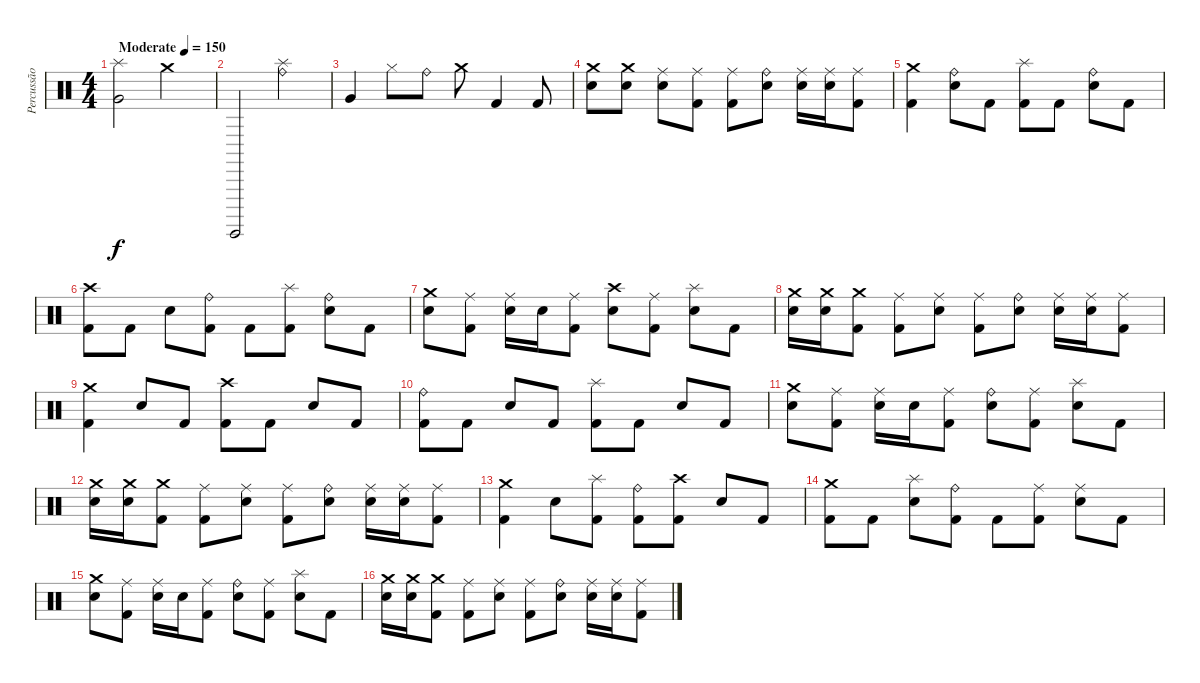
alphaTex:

\track ("Percussão" "Percussão") {instrument percussion}
\staff {score}
\articulation defaults
\ts (4 4)
\tempo (150 "Moderate")
\clef neutral
\ks c
("Very Low Tom (hit)" "Splash (hit)").2{dy f} "Crash medium (hit)".2 |
"Surdo (hit)".2 ("Ride (bell)" "Splash (hit)").2 |
"Very Low Tom (hit)".4 "Hi-Hat (closed)".8 "Ride (bell)".8 "Crash medium (hit)".8 "Kick (hit) 2".4 "Kick (hit) 2".8 |
("Snare (hit) 2" "Crash medium (hit)").8 ("Snare (hit) 2" "Crash medium (hit)").8 ("Snare (hit) 2" "Ride (middle)").8 ("Kick (hit) 2" "Ride (middle)").8 ("Kick (hit) 2" "Ride (middle)").8 ("Snare (hit) 2" "Ride (bell)").8 ("Snare (hit) 2" "Ride (middle)").16 ("Snare (hit) 2" "Ride (middle)").16 ("Kick (hit) 2" "Ride (middle)").8 |
("Kick (hit) 2" "Crash medium (hit)").4 ("Snare (hit) 2" "Ride (bell)").8 "Kick (hit) 2".8 ("Kick (hit) 2" "Splash (hit)").8 "Kick (hit) 2".8 ("Snare (hit) 2" "Ride (bell)").8 "Kick (hit) 2".8 |
("Kick (hit) 2" "Crash high (hit)").8 "Kick (hit) 2".8 "Snare (hit) 2".8 ("Kick (hit) 2" "Ride (bell)").8 "Kick (hit) 2".8 ("Kick (hit) 2" "Splash (hit)").8 ("Snare (hit) 2" "Ride (bell)").8 "Kick (hit) 2".8 |
("Snare (hit) 2" "Crash medium (hit)").8 ("Kick (hit) 2" "Ride (middle)").8 ("Snare (hit) 2" "Ride (middle)").16 "Snare (hit) 2".16 ("Kick (hit) 2" "Ride (middle)").8 ("Snare (hit) 2" "Crash high (hit)").8 ("Kick (hit) 2" "Ride (middle)").8 ("Snare (hit) 2" "Splash (hit)").8 "Kick (hit) 2".8 |
("Snare (hit) 2" "Crash medium (hit)").16 ("Snare (hit) 2" "Crash medium (hit)").16 ("Kick (hit) 2" "Crash medium (hit)").8 ("Kick (hit) 2" "Ride (middle)").8 ("Snare (hit) 2" "Ride (middle)").8 ("Kick (hit) 2" "Ride (middle)").8 ("Snare (hit) 2" "Ride (bell)").8 ("Snare (hit) 2" "Ride (middle)").16 ("Snare (hit) 2" "Ride (middle)").16 ("Kick (hit) 2" "Ride (middle)").8 |
("Kick (hit) 2" "Crash medium (hit)").4 "Snare (hit) 2".8 "Kick (hit) 2".8 ("Kick (hit) 2" "Crash high (hit)").8 "Kick (hit) 2".8 "Snare (hit) 2".8 "Kick (hit) 2".8 |
("Kick (hit) 2" "Ride (bell)").8 "Kick (hit) 2".8 "Snare (hit) 2".8 "Kick (hit) 2".8 ("Kick (hit) 2" "Splash (hit)").8 "Kick (hit) 2".8 "Snare (hit) 2".8 "Kick (hit) 2".8 |
("Snare (hit) 2" "Crash medium (hit)").8 ("Kick (hit) 2" "Ride (middle)").8 ("Snare (hit) 2" "Ride (middle)").16 "Snare (hit) 2".16 ("Kick (hit) 2" "Ride (middle)").8 ("Snare (hit) 2" "Ride (bell)").8 ("Kick (hit) 2" "Ride (middle)").8 ("Snare (hit) 2" "Splash (hit)").8 "Kick (hit) 2".8 |
("Snare (hit) 2" "Crash medium (hit)").16 ("Snare (hit) 2" "Crash medium (hit)").16 ("Kick (hit) 2" "Crash medium (hit)").8 ("Kick (hit) 2" "Ride (middle)").8 ("Snare (hit) 2" "Ride (middle)").8 ("Kick (hit) 2" "Ride (middle)").8 ("Snare (hit) 2" "Ride (bell)").8 ("Snare (hit) 2" "Ride (middle)").16 ("Snare (hit) 2" "Ride (middle)").16 ("Kick (hit) 2" "Ride (middle)").8 |
("Kick (hit) 2" "Crash medium (hit)").4 "Snare (hit) 2".8 ("Kick (hit) 2" "Splash (hit)").8 ("Kick (hit) 2" "Ride (bell)").8 ("Kick (hit) 2" "Crash high (hit)").8 "Snare (hit) 2".8 "Kick (hit) 2".8 |
("Kick (hit) 2" "Crash medium (hit)").8 "Kick (hit) 2".8 ("Snare (hit) 2" "Splash (hit)").8 ("Kick (hit) 2" "Ride (bell)").8 "Kick (hit) 2".8 ("Kick (hit) 2" "Ride (middle)").8 ("Snare (hit) 2" "Ride (middle)").8 "Kick (hit) 2".8 |
("Snare (hit) 2" "Crash medium (hit)").8 ("Kick (hit) 2" "Ride (middle)").8 ("Snare (hit) 2" "Ride (middle)").16 "Snare (hit) 2".16 ("Kick (hit) 2" "Ride (middle)").8 ("Snare (hit) 2" "Ride (bell)").8 ("Kick (hit) 2" "Ride (middle)").8 ("Snare (hit) 2" "Splash (hit)").8 "Kick (hit) 2".8 |
("Snare (hit) 2" "Crash medium (hit)").16 ("Snare (hit) 2" "Crash medium (hit)").16 ("Kick (hit) 2" "Crash medium (hit)").8 ("Kick (hit) 2" "Ride (middle)").8 ("Snare (hit) 2" "Ride (middle)").8 ("Kick (hit) 2" "Ride (middle)").8 ("Snare (hit) 2" "Ride (bell)").8 ("Snare (hit) 2" "Ride (middle)").16 ("Snare (hit) 2" "Ride (middle)").16 ("Kick (hit) 2" "Ride (middle)").8
